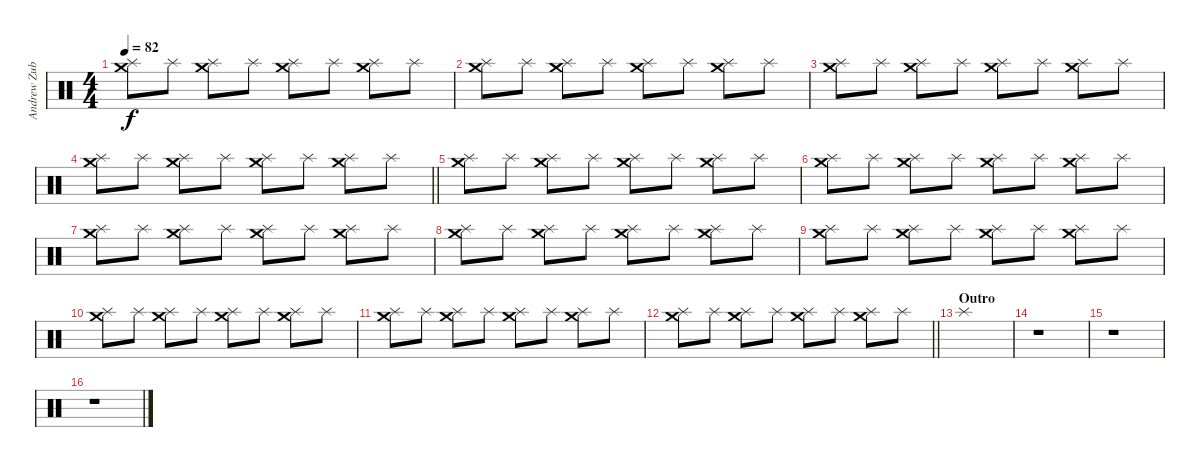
\track ("Andrew Zubiszewski (Drums)" "Andrew Zub") {instrument percussion}
\staff {score}
\articulation defaults
\ts (4 4)
\tempo 82
\clef neutral
\ks c
("Crash medium (hit)" "Splash (hit)").8{dy f} "Splash (hit)".8 ("Crash medium (hit)" "Splash (hit)").8 "Splash (hit)".8 ("Crash medium (hit)" "Splash (hit)").8 "Splash (hit)".8 ("Crash medium (hit)" "Splash (hit)").8 "Splash (hit)".8 |
("Crash medium (hit)" "Splash (hit)").8 "Splash (hit)".8 ("Crash medium (hit)" "Splash (hit)").8 "Splash (hit)".8 ("Crash medium (hit)" "Splash (hit)").8 "Splash (hit)".8 ("Crash medium (hit)" "Splash (hit)").8 "Splash (hit)".8 |
("Crash medium (hit)" "Splash (hit)").8 "Splash (hit)".8 ("Crash medium (hit)" "Splash (hit)").8 "Splash (hit)".8 ("Crash medium (hit)" "Splash (hit)").8 "Splash (hit)".8 ("Crash medium (hit)" "Splash (hit)").8 "Splash (hit)".8 |
\barLineRight lightlight
("Crash medium (hit)" "Splash (hit)").8 "Splash (hit)".8 ("Crash medium (hit)" "Splash (hit)").8 "Splash (hit)".8 ("Crash medium (hit)" "Splash (hit)").8 "Splash (hit)".8 ("Crash medium (hit)" "Splash (hit)").8 "Splash (hit)".8 |
("Crash medium (hit)" "Splash (hit)").8 "Splash (hit)".8 ("Crash medium (hit)" "Splash (hit)").8 "Splash (hit)".8 ("Crash medium (hit)" "Splash (hit)").8 "Splash (hit)".8 ("Crash medium (hit)" "Splash (hit)").8 "Splash (hit)".8 |
("Crash medium (hit)" "Splash (hit)").8 "Splash (hit)".8 ("Crash medium (hit)" "Splash (hit)").8 "Splash (hit)".8 ("Crash medium (hit)" "Splash (hit)").8 "Splash (hit)".8 ("Crash medium (hit)" "Splash (hit)").8 "Splash (hit)".8 |
("Crash medium (hit)" "Splash (hit)").8 "Splash (hit)".8 ("Crash medium (hit)" "Splash (hit)").8 "Splash (hit)".8 ("Crash medium (hit)" "Splash (hit)").8 "Splash (hit)".8 ("Crash medium (hit)" "Splash (hit)").8 "Splash (hit)".8 |
("Crash medium (hit)" "Splash (hit)").8 "Splash (hit)".8 ("Crash medium (hit)" "Splash (hit)").8 "Splash (hit)".8 ("Crash medium (hit)" "Splash (hit)").8 "Splash (hit)".8 ("Crash medium (hit)" "Splash (hit)").8 "Splash (hit)".8 |
("Crash medium (hit)" "Splash (hit)").8 "Splash (hit)".8 ("Crash medium (hit)" "Splash (hit)").8 "Splash (hit)".8 ("Crash medium (hit)" "Splash (hit)").8 "Splash (hit)".8 ("Crash medium (hit)" "Splash (hit)").8 "Splash (hit)".8 |
("Crash medium (hit)" "Splash (hit)").8 "Splash (hit)".8 ("Crash medium (hit)" "Splash (hit)").8 "Splash (hit)".8 ("Crash medium (hit)" "Splash (hit)").8 "Splash (hit)".8 ("Crash medium (hit)" "Splash (hit)").8 "Splash (hit)".8 |
("Crash medium (hit)" "Splash (hit)").8 "Splash (hit)".8 ("Crash medium (hit)" "Splash (hit)").8 "Splash (hit)".8 ("Crash medium (hit)" "Splash (hit)").8 "Splash (hit)".8 ("Crash medium (hit)" "Splash (hit)").8 "Splash (hit)".8 |
\barLineRight lightlight
("Crash medium (hit)" "Splash (hit)").8 "Splash (hit)".8 ("Crash medium (hit)" "Splash (hit)").8 "Splash (hit)".8 ("Crash medium (hit)" "Splash (hit)").8 "Splash (hit)".8 ("Crash medium (hit)" "Splash (hit)").8 "Splash (hit)".8 |
\section ("" "Outro")
"Splash (hit)".1 |
r.1 |
r.1 |
r.1
